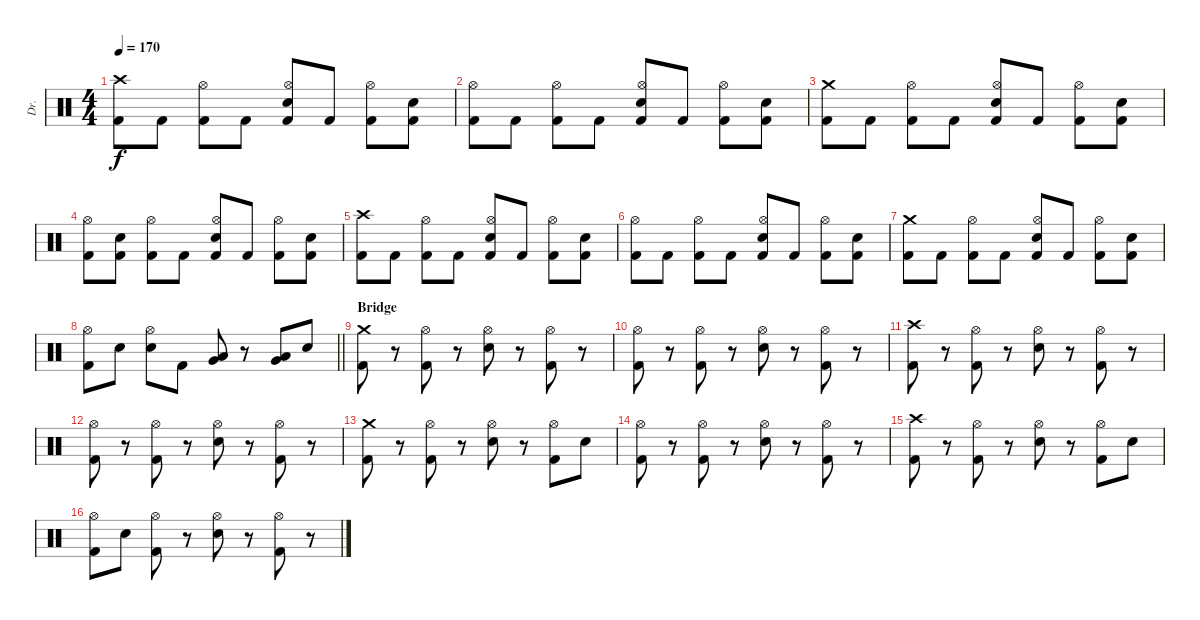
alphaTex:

\track ("Dr." "Dr.") {instrument percussion}
\staff {score}
\articulation defaults
\ts (4 4)
\tempo 170
\clef neutral
\ks c
("Crash high (hit)" "Kick (hit) 2").8{dy f} "Kick (hit) 2".8 ("Hi-Hat (open)" "Kick (hit) 2").8 "Kick (hit) 2".8 ("Hi-Hat (open)" "Electric Snare (hit)" "Kick (hit) 2").8 "Kick (hit) 2".8 ("Hi-Hat (open)" "Kick (hit) 2").8 ("Electric Snare (hit)" "Kick (hit) 2").8 |
("Hi-Hat (open)" "Kick (hit) 2").8 "Kick (hit) 2".8 ("Hi-Hat (open)" "Kick (hit) 2").8 "Kick (hit) 2".8 ("Hi-Hat (open)" "Electric Snare (hit)" "Kick (hit) 2").8 "Kick (hit) 2".8 ("Hi-Hat (open)" "Kick (hit) 2").8 ("Electric Snare (hit)" "Kick (hit) 2").8 |
("Crash medium (hit)" "Kick (hit) 2").8 "Kick (hit) 2".8 ("Hi-Hat (open)" "Kick (hit) 2").8 "Kick (hit) 2".8 ("Hi-Hat (open)" "Electric Snare (hit)" "Kick (hit) 2").8 "Kick (hit) 2".8 ("Hi-Hat (open)" "Kick (hit) 2").8 ("Electric Snare (hit)" "Kick (hit) 2").8 |
("Hi-Hat (open)" "Kick (hit) 2").8 ("Electric Snare (hit)" "Kick (hit) 2").8 ("Hi-Hat (open)" "Kick (hit) 2").8 "Kick (hit) 2".8 ("Hi-Hat (open)" "Electric Snare (hit)" "Kick (hit) 2").8 "Kick (hit) 2".8 ("Hi-Hat (open)" "Kick (hit) 2").8 ("Electric Snare (hit)" "Kick (hit) 2").8 |
("Crash high (hit)" "Kick (hit) 2").8 "Kick (hit) 2".8 ("Hi-Hat (open)" "Kick (hit) 2").8 "Kick (hit) 2".8 ("Hi-Hat (open)" "Electric Snare (hit)" "Kick (hit) 2").8 "Kick (hit) 2".8 ("Hi-Hat (open)" "Kick (hit) 2").8 ("Electric Snare (hit)" "Kick (hit) 2").8 |
("Hi-Hat (open)" "Kick (hit) 2").8 "Kick (hit) 2".8 ("Hi-Hat (open)" "Kick (hit) 2").8 "Kick (hit) 2".8 ("Hi-Hat (open)" "Electric Snare (hit)" "Kick (hit) 2").8 "Kick (hit) 2".8 ("Hi-Hat (open)" "Kick (hit) 2").8 ("Electric Snare (hit)" "Kick (hit) 2").8 |
("Crash medium (hit)" "Kick (hit) 2").8 "Kick (hit) 2".8 ("Hi-Hat (open)" "Kick (hit) 2").8 "Kick (hit) 2".8 ("Hi-Hat (open)" "Electric Snare (hit)" "Kick (hit) 2").8 "Kick (hit) 2".8 ("Hi-Hat (open)" "Kick (hit) 2").8 ("Electric Snare (hit)" "Kick (hit) 2").8 |
\barLineRight lightlight
("Hi-Hat (open)" "Kick (hit) 2").8 "Electric Snare (hit)".8 ("Hi-Hat (open)" "Electric Snare (hit)").8 "Kick (hit) 2".8 ("Low Tom (hit)" "Very Low Tom (hit)").8 r.8 ("Low Tom (hit)" "Very Low Tom (hit)").8 "Electric Snare (hit)".8 |
\section ("" "Bridge")
("Crash medium (hit)" "Kick (hit) 2").8 r.8 ("Hi-Hat (open)" "Kick (hit) 2").8 r.8 ("Hi-Hat (open)" "Electric Snare (hit)").8 r.8 ("Hi-Hat (open)" "Kick (hit) 2").8 r.8 |
("Hi-Hat (open)" "Kick (hit) 2").8 r.8 ("Hi-Hat (open)" "Kick (hit) 2").8 r.8 ("Hi-Hat (open)" "Electric Snare (hit)").8 r.8 ("Hi-Hat (open)" "Kick (hit) 2").8 r.8 |
("Crash high (hit)" "Kick (hit) 2").8 r.8 ("Hi-Hat (open)" "Kick (hit) 2").8 r.8 ("Hi-Hat (open)" "Electric Snare (hit)").8 r.8 ("Hi-Hat (open)" "Kick (hit) 2").8 r.8 |
("Hi-Hat (open)" "Kick (hit) 2").8 r.8 ("Hi-Hat (open)" "Kick (hit) 2").8 r.8 ("Hi-Hat (open)" "Electric Snare (hit)").8 r.8 ("Hi-Hat (open)" "Kick (hit) 2").8 r.8 |
("Crash medium (hit)" "Kick (hit) 2").8 r.8 ("Hi-Hat (open)" "Kick (hit) 2").8 r.8 ("Hi-Hat (open)" "Electric Snare (hit)").8 r.8 ("Hi-Hat (open)" "Kick (hit) 2").8 "Electric Snare (hit)".8 |
("Hi-Hat (open)" "Kick (hit) 2").8 r.8 ("Hi-Hat (open)" "Kick (hit) 2").8 r.8 ("Hi-Hat (open)" "Electric Snare (hit)").8 r.8 ("Hi-Hat (open)" "Kick (hit) 2").8 r.8 |
("Crash high (hit)" "Kick (hit) 2").8 r.8 ("Hi-Hat (open)" "Kick (hit) 2").8 r.8 ("Hi-Hat (open)" "Electric Snare (hit)").8 r.8 ("Hi-Hat (open)" "Kick (hit) 2").8 "Electric Snare (hit)".8 |
("Hi-Hat (open)" "Kick (hit) 2").8 "Electric Snare (hit)".8 ("Hi-Hat (open)" "Kick (hit) 2").8 r.8 ("Hi-Hat (open)" "Electric Snare (hit)").8 r.8 ("Hi-Hat (open)" "Kick (hit) 2").8 r.8
